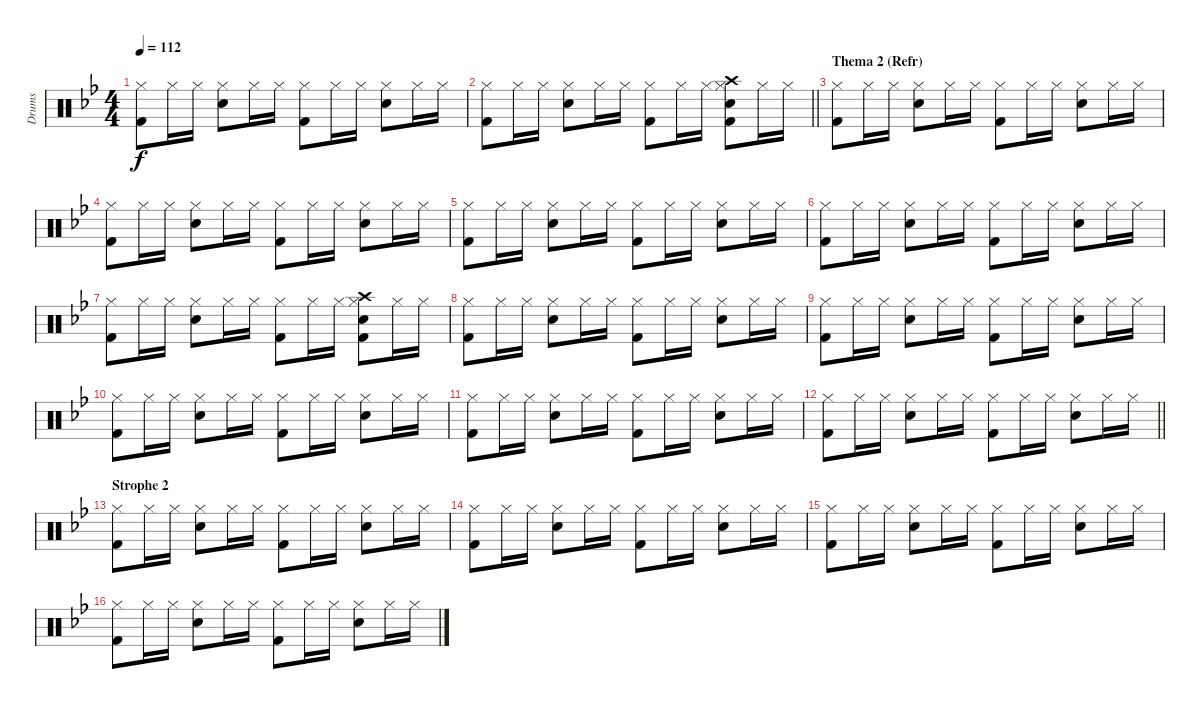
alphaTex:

\track ("Drums" "Drums") {instrument percussion}
\staff {score}
\articulation defaults
\ts (4 4)
\tempo 112
\clef neutral
\ks bb
("Hi-Hat (closed)" "Kick (hit) 2").8{dy f} "Hi-Hat (closed)".16 "Hi-Hat (closed)".16 ("Snare (hit) 2" "Hi-Hat (closed)").8 "Hi-Hat (closed)".16 "Hi-Hat (closed)".16 ("Hi-Hat (closed)" "Kick (hit) 2").8 "Hi-Hat (closed)".16 "Hi-Hat (closed)".16 ("Snare (hit) 2" "Hi-Hat (closed)").8 "Hi-Hat (closed)".16 "Hi-Hat (closed)".16 |
\barLineRight lightlight
("Hi-Hat (closed)" "Kick (hit) 2").8 "Hi-Hat (closed)".16 "Hi-Hat (closed)".16 ("Snare (hit) 2" "Hi-Hat (closed)").8 "Hi-Hat (closed)".16 "Hi-Hat (closed)".16 ("Hi-Hat (closed)" "Kick (hit) 2").8 "Hi-Hat (closed)".16 "Hi-Hat (closed)".16 ("Snare (hit) 2" "Hi-Hat (closed)" "Crash high (hit)" "Kick (hit) 2").8 "Hi-Hat (closed)".16 "Hi-Hat (closed)".16 |
\section ("" "Thema 2 (Refr)")
("Hi-Hat (closed)" "Kick (hit) 2").8 "Hi-Hat (closed)".16 "Hi-Hat (closed)".16 ("Snare (hit) 2" "Hi-Hat (closed)").8 "Hi-Hat (closed)".16 "Hi-Hat (closed)".16 ("Hi-Hat (closed)" "Kick (hit) 2").8 "Hi-Hat (closed)".16 "Hi-Hat (closed)".16 ("Snare (hit) 2" "Hi-Hat (closed)").8 "Hi-Hat (closed)".16 "Hi-Hat (closed)".16 |
("Hi-Hat (closed)" "Kick (hit) 2").8 "Hi-Hat (closed)".16 "Hi-Hat (closed)".16 ("Snare (hit) 2" "Hi-Hat (closed)").8 "Hi-Hat (closed)".16 "Hi-Hat (closed)".16 ("Hi-Hat (closed)" "Kick (hit) 2").8 "Hi-Hat (closed)".16 "Hi-Hat (closed)".16 ("Snare (hit) 2" "Hi-Hat (closed)").8 "Hi-Hat (closed)".16 "Hi-Hat (closed)".16 |
("Hi-Hat (closed)" "Kick (hit) 2").8 "Hi-Hat (closed)".16 "Hi-Hat (closed)".16 ("Snare (hit) 2" "Hi-Hat (closed)").8 "Hi-Hat (closed)".16 "Hi-Hat (closed)".16 ("Hi-Hat (closed)" "Kick (hit) 2").8 "Hi-Hat (closed)".16 "Hi-Hat (closed)".16 ("Snare (hit) 2" "Hi-Hat (closed)").8 "Hi-Hat (closed)".16 "Hi-Hat (closed)".16 |
("Hi-Hat (closed)" "Kick (hit) 2").8 "Hi-Hat (closed)".16 "Hi-Hat (closed)".16 ("Snare (hit) 2" "Hi-Hat (closed)").8 "Hi-Hat (closed)".16 "Hi-Hat (closed)".16 ("Hi-Hat (closed)" "Kick (hit) 2").8 "Hi-Hat (closed)".16 "Hi-Hat (closed)".16 ("Snare (hit) 2" "Hi-Hat (closed)").8 "Hi-Hat (closed)".16 "Hi-Hat (closed)".16 |
("Hi-Hat (closed)" "Kick (hit) 2").8 "Hi-Hat (closed)".16 "Hi-Hat (closed)".16 ("Snare (hit) 2" "Hi-Hat (closed)").8 "Hi-Hat (closed)".16 "Hi-Hat (closed)".16 ("Hi-Hat (closed)" "Kick (hit) 2").8 "Hi-Hat (closed)".16 "Hi-Hat (closed)".16 ("Snare (hit) 2" "Hi-Hat (closed)" "Crash high (hit)" "Kick (hit) 2").8 "Hi-Hat (closed)".16 "Hi-Hat (closed)".16 |
("Hi-Hat (closed)" "Kick (hit) 2").8 "Hi-Hat (closed)".16 "Hi-Hat (closed)".16 ("Snare (hit) 2" "Hi-Hat (closed)").8 "Hi-Hat (closed)".16 "Hi-Hat (closed)".16 ("Hi-Hat (closed)" "Kick (hit) 2").8 "Hi-Hat (closed)".16 "Hi-Hat (closed)".16 ("Snare (hit) 2" "Hi-Hat (closed)").8 "Hi-Hat (closed)".16 "Hi-Hat (closed)".16 |
("Hi-Hat (closed)" "Kick (hit) 2").8 "Hi-Hat (closed)".16 "Hi-Hat (closed)".16 ("Snare (hit) 2" "Hi-Hat (closed)").8 "Hi-Hat (closed)".16 "Hi-Hat (closed)".16 ("Hi-Hat (closed)" "Kick (hit) 2").8 "Hi-Hat (closed)".16 "Hi-Hat (closed)".16 ("Snare (hit) 2" "Hi-Hat (closed)").8 "Hi-Hat (closed)".16 "Hi-Hat (closed)".16 |
("Hi-Hat (closed)" "Kick (hit) 2").8 "Hi-Hat (closed)".16 "Hi-Hat (closed)".16 ("Snare (hit) 2" "Hi-Hat (closed)").8 "Hi-Hat (closed)".16 "Hi-Hat (closed)".16 ("Hi-Hat (closed)" "Kick (hit) 2").8 "Hi-Hat (closed)".16 "Hi-Hat (closed)".16 ("Snare (hit) 2" "Hi-Hat (closed)").8 "Hi-Hat (closed)".16 "Hi-Hat (closed)".16 |
("Hi-Hat (closed)" "Kick (hit) 2").8 "Hi-Hat (closed)".16 "Hi-Hat (closed)".16 ("Snare (hit) 2" "Hi-Hat (closed)").8 "Hi-Hat (closed)".16 "Hi-Hat (closed)".16 ("Hi-Hat (closed)" "Kick (hit) 2").8 "Hi-Hat (closed)".16 "Hi-Hat (closed)".16 ("Snare (hit) 2" "Hi-Hat (closed)").8 "Hi-Hat (closed)".16 "Hi-Hat (closed)".16 |
\barLineRight lightlight
("Hi-Hat (closed)" "Kick (hit) 2").8 "Hi-Hat (closed)".16 "Hi-Hat (closed)".16 ("Snare (hit) 2" "Hi-Hat (closed)").8 "Hi-Hat (closed)".16 "Hi-Hat (closed)".16 ("Hi-Hat (closed)" "Kick (hit) 2").8 "Hi-Hat (closed)".16 "Hi-Hat (closed)".16 ("Snare (hit) 2" "Hi-Hat (closed)").8 "Hi-Hat (closed)".16 "Hi-Hat (closed)".16 |
\section ("" "Strophe 2")
("Hi-Hat (closed)" "Kick (hit) 2").8 "Hi-Hat (closed)".16 "Hi-Hat (closed)".16 ("Snare (hit) 2" "Hi-Hat (closed)").8 "Hi-Hat (closed)".16 "Hi-Hat (closed)".16 ("Hi-Hat (closed)" "Kick (hit) 2").8 "Hi-Hat (closed)".16 "Hi-Hat (closed)".16 ("Snare (hit) 2" "Hi-Hat (closed)").8 "Hi-Hat (closed)".16 "Hi-Hat (closed)".16 |
("Hi-Hat (closed)" "Kick (hit) 2").8 "Hi-Hat (closed)".16 "Hi-Hat (closed)".16 ("Snare (hit) 2" "Hi-Hat (closed)").8 "Hi-Hat (closed)".16 "Hi-Hat (closed)".16 ("Hi-Hat (closed)" "Kick (hit) 2").8 "Hi-Hat (closed)".16 "Hi-Hat (closed)".16 ("Snare (hit) 2" "Hi-Hat (closed)").8 "Hi-Hat (closed)".16 "Hi-Hat (closed)".16 |
("Hi-Hat (closed)" "Kick (hit) 2").8 "Hi-Hat (closed)".16 "Hi-Hat (closed)".16 ("Snare (hit) 2" "Hi-Hat (closed)").8 "Hi-Hat (closed)".16 "Hi-Hat (closed)".16 ("Hi-Hat (closed)" "Kick (hit) 2").8 "Hi-Hat (closed)".16 "Hi-Hat (closed)".16 ("Snare (hit) 2" "Hi-Hat (closed)").8 "Hi-Hat (closed)".16 "Hi-Hat (closed)".16 |
("Hi-Hat (closed)" "Kick (hit) 2").8 "Hi-Hat (closed)".16 "Hi-Hat (closed)".16 ("Snare (hit) 2" "Hi-Hat (closed)").8 "Hi-Hat (closed)".16 "Hi-Hat (closed)".16 ("Hi-Hat (closed)" "Kick (hit) 2").8 "Hi-Hat (closed)".16 "Hi-Hat (closed)".16 ("Snare (hit) 2" "Hi-Hat (closed)").8 "Hi-Hat (closed)".16 "Hi-Hat (closed)".16
